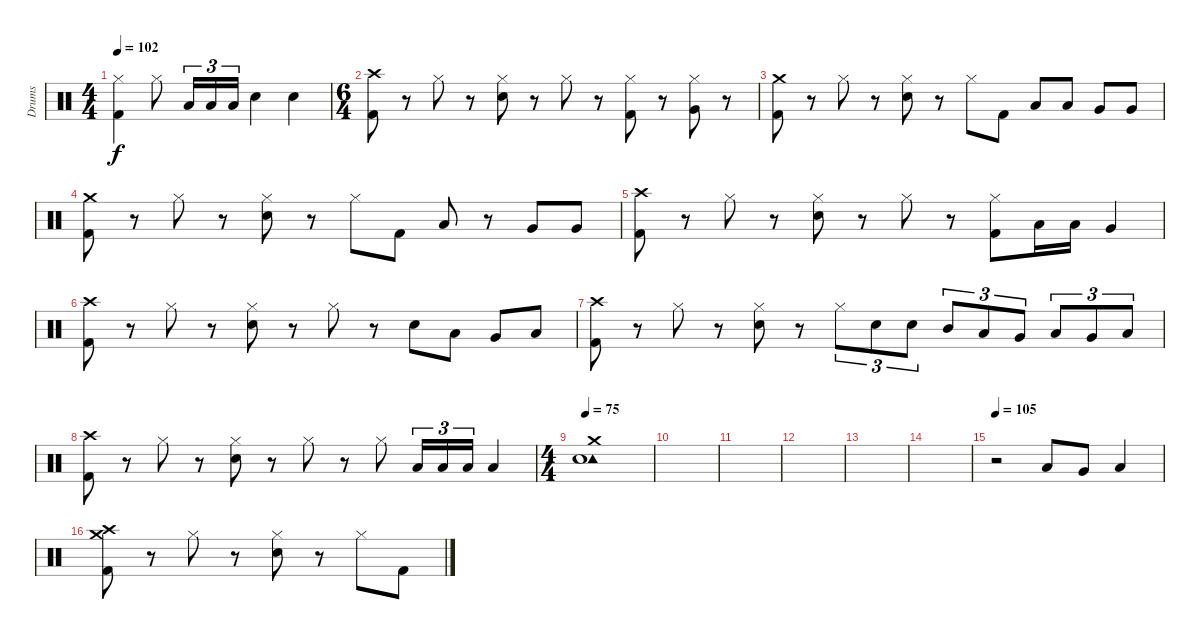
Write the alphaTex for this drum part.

\track ("Drums" "Drums") {instrument percussion}
\staff {score}
\articulation defaults
\ts (4 4)
\tempo 102
\clef neutral
\ks c
("Hi-Hat (closed)" "Kick (hit) 2").4{dy f} "Hi-Hat (closed)".8 "Low Floor Tom (hit)".16{tu (3 2)} "Low Floor Tom (hit)".16{tu (3 2)} "Low Floor Tom (hit)".16{tu (3 2)} "Snare (hit) 2".4 "Snare (hit) 2".4 |
\ts (6 4)
("Crash high (hit)" "Kick (hit) 2").8 r.8 "Hi-Hat (closed)".8 r.8 ("Hi-Hat (closed)" "Snare (hit) 2").8 r.8 "Hi-Hat (closed)".8 r.8 ("Hi-Hat (closed)" "Kick (hit) 2").8 r.8 ("Hi-Hat (closed)" "Very Low Tom (hit)").8 r.8 |
("Crash medium (hit)" "Kick (hit) 2").8 r.8 "Hi-Hat (closed)".8 r.8 ("Hi-Hat (closed)" "Snare (hit) 2").8 r.8 "Hi-Hat (closed)".8 "Kick (hit) 2".8 "Low Tom (hit)".8 "Low Tom (hit)".8 "Very Low Tom (hit)".8 "Very Low Tom (hit)".8 |
("Crash medium (hit)" "Kick (hit) 2").8 r.8 "Hi-Hat (closed)".8 r.8 ("Hi-Hat (closed)" "Snare (hit) 2").8 r.8 "Hi-Hat (closed)".8 "Kick (hit) 2".8 "Low Tom (hit)".8 r.8 "Very Low Tom (hit)".8 "Very Low Tom (hit)".8 |
("Crash high (hit)" "Kick (hit) 2").8 r.8 "Hi-Hat (closed)".8 r.8 ("Hi-Hat (closed)" "Snare (hit) 2").8 r.8 "Hi-Hat (closed)".8 r.8 ("Hi-Hat (closed)" "Kick (hit) 2").8 "Low Floor Tom (hit)".16 "Low Floor Tom (hit)".16 "Very Low Tom (hit)".4 |
("Crash high (hit)" "Kick (hit) 2").8 r.8 "Hi-Hat (closed)".8 r.8 ("Hi-Hat (closed)" "Snare (hit) 2").8 r.8 "Hi-Hat (closed)".8 r.8 "Snare (hit) 2".8 "Low Tom (hit)".8 "Very Low Tom (hit)".8 "Low Floor Tom (hit)".8 |
("Crash high (hit)" "Kick (hit) 2").8 r.8 "Hi-Hat (closed)".8 r.8 ("Hi-Hat (closed)" "Snare (hit) 2").8 r.8 "Hi-Hat (closed)".8{tu (3 2)} "Snare (hit) 2".8{tu (3 2)} "Snare (hit) 2".8{tu (3 2)} "Mid Tom (hit)".8{tu (3 2)} "Low Tom (hit)".8{tu (3 2)} "Very Low Tom (hit)".8{tu (3 2)} "Low Tom (hit)".8{tu (3 2)} "Very Low Tom (hit)".8{tu (3 2)} "Low Floor Tom (hit)".8{tu (3 2)} |
("Crash high (hit)" "Kick (hit) 2").8 r.8 "Hi-Hat (closed)".8 r.8 ("Hi-Hat (closed)" "Snare (hit) 2").8 r.8 "Hi-Hat (closed)".8 r.8 "Hi-Hat (closed)".8 "Low Floor Tom (hit)".16{tu (3 2)} "Low Floor Tom (hit)".16{tu (3 2)} "Low Floor Tom (hit)".16{tu (3 2)} "Low Tom (hit)".4 |
\ts (4 4)
\tempo 75
("Crash medium (hit)" "Tambourine (hit)" "Snare (hit) 2").1 |
|
|
|
|
|
\tempo 95
\tempo 105
r.2 "Low Tom (hit)".8 "Very Low Tom (hit)".8 "Low Floor Tom (hit)".4 |
("Crash high (hit)" "Crash medium (hit)" "Kick (hit) 2").8 r.8 "Hi-Hat (closed)".8 r.8 ("Hi-Hat (closed)" "Snare (hit) 2").8 r.8 "Hi-Hat (closed)".8 "Kick (hit) 2".8
